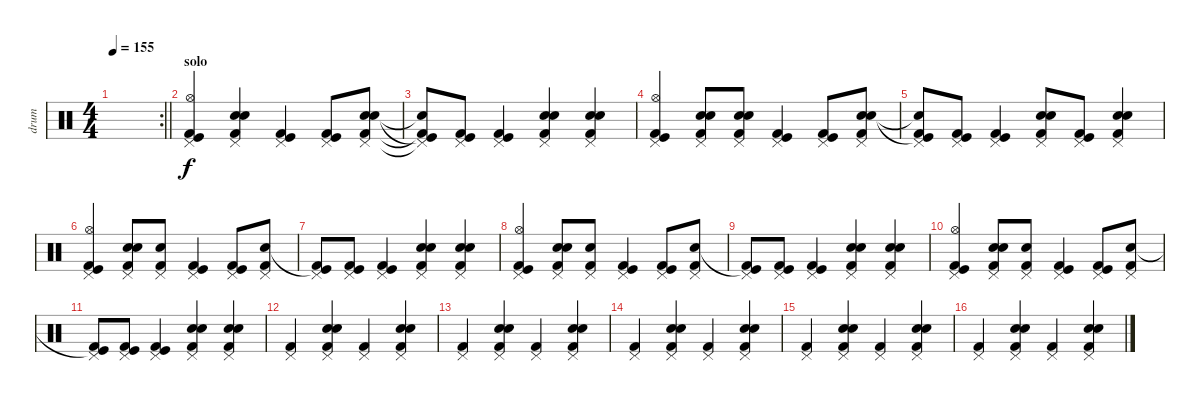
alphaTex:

\track ("drum" "drum") {instrument percussion}
\staff {score}
\articulation defaults
\rc 2
\ts (4 4)
\tempo 155
\clef neutral
\barLineRight lightlight
\ks c
|
\section ("" "solo")
("Pedal Hi-Hat (hit)" "Hi-Hat (open)" "Kick (hit)" "Kick (hit) 2").4 ("Pedal Hi-Hat (hit)" "Electric Snare (hit)" "Snare (hit) 2" "Kick (hit) 2").4 ("Pedal Hi-Hat (hit)" "Kick (hit)" "Kick (hit) 2").4 ("Pedal Hi-Hat (hit)" "Kick (hit)" "Kick (hit) 2").8 ("Pedal Hi-Hat (hit)" "Electric Snare (hit)" "Snare (hit) 2" "Kick (hit) 2").8 |
("Pedal Hi-Hat (hit)"{t} "Snare (hit)"{t} "Kick (hit)"{t} "Kick (hit) 2"{t}).8 ("Pedal Hi-Hat (hit)" "Kick (hit)" "Kick (hit) 2").8 ("Pedal Hi-Hat (hit)" "Kick (hit)" "Kick (hit) 2").4 ("Pedal Hi-Hat (hit)" "Electric Snare (hit)" "Snare (hit) 2" "Kick (hit) 2").4 ("Pedal Hi-Hat (hit)" "Electric Snare (hit)" "Snare (hit) 2" "Kick (hit) 2").4 |
("Pedal Hi-Hat (hit)" "Hi-Hat (open)" "Kick (hit)" "Kick (hit) 2").4 ("Pedal Hi-Hat (hit)" "Electric Snare (hit)" "Snare (hit) 2" "Kick (hit) 2").8 ("Pedal Hi-Hat (hit)" "Electric Snare (hit)" "Snare (hit) 2" "Kick (hit) 2").8 ("Pedal Hi-Hat (hit)" "Kick (hit)" "Kick (hit) 2").4 ("Pedal Hi-Hat (hit)" "Kick (hit)" "Kick (hit) 2").8 ("Pedal Hi-Hat (hit)" "Electric Snare (hit)" "Snare (hit) 2" "Kick (hit) 2").8 |
("Pedal Hi-Hat (hit)" "Snare (hit)"{t} "Kick (hit)"{t} "Kick (hit) 2").8 ("Pedal Hi-Hat (hit)" "Kick (hit)" "Kick (hit) 2").8 ("Pedal Hi-Hat (hit)" "Kick (hit)" "Kick (hit) 2").4 ("Pedal Hi-Hat (hit)" "Snare (hit) 2" "Electric Snare (hit)" "Kick (hit) 2").8 ("Pedal Hi-Hat (hit)" "Kick (hit)" "Kick (hit) 2").8 ("Pedal Hi-Hat (hit)" "Snare (hit) 2" "Electric Snare (hit)" "Kick (hit) 2").4 |
("Pedal Hi-Hat (hit)" "Hi-Hat (open)" "Kick (hit)" "Kick (hit) 2").4 ("Pedal Hi-Hat (hit)" "Electric Snare (hit)" "Snare (hit) 2" "Kick (hit) 2").8 ("Pedal Hi-Hat (hit)" "Snare (hit) 2" "Kick (hit) 2").8 ("Pedal Hi-Hat (hit)" "Kick (hit)" "Kick (hit) 2").4 ("Pedal Hi-Hat (hit)" "Kick (hit)" "Kick (hit) 2").8 ("Pedal Hi-Hat (hit)" "Snare (hit) 2" "Kick (hit) 2").8 |
("Pedal Hi-Hat (hit)" "Kick (hit)"{t} "Kick (hit) 2").8 ("Pedal Hi-Hat (hit)" "Kick (hit)" "Kick (hit) 2").8 ("Pedal Hi-Hat (hit)" "Kick (hit)" "Kick (hit) 2").4 ("Pedal Hi-Hat (hit)" "Electric Snare (hit)" "Snare (hit) 2" "Kick (hit) 2").4 ("Pedal Hi-Hat (hit)" "Electric Snare (hit)" "Snare (hit) 2" "Kick (hit) 2").4 |
("Pedal Hi-Hat (hit)" "Hi-Hat (open)" "Kick (hit)" "Kick (hit) 2").4 ("Pedal Hi-Hat (hit)" "Electric Snare (hit)" "Snare (hit) 2" "Kick (hit) 2").8 ("Pedal Hi-Hat (hit)" "Snare (hit) 2" "Kick (hit) 2").8 ("Pedal Hi-Hat (hit)" "Kick (hit)" "Kick (hit) 2").4 ("Pedal Hi-Hat (hit)" "Kick (hit)" "Kick (hit) 2").8 ("Pedal Hi-Hat (hit)" "Snare (hit) 2" "Kick (hit) 2").8 |
("Pedal Hi-Hat (hit)" "Kick (hit)"{t} "Kick (hit) 2").8 ("Pedal Hi-Hat (hit)" "Kick (hit)" "Kick (hit) 2").8 ("Pedal Hi-Hat (hit)" "Kick (hit)" "Kick (hit) 2").4 ("Pedal Hi-Hat (hit)" "Electric Snare (hit)" "Snare (hit) 2" "Kick (hit) 2").4 ("Pedal Hi-Hat (hit)" "Electric Snare (hit)" "Snare (hit) 2" "Kick (hit) 2").4 |
("Pedal Hi-Hat (hit)" "Hi-Hat (open)" "Kick (hit)" "Kick (hit) 2").4 ("Pedal Hi-Hat (hit)" "Electric Snare (hit)" "Snare (hit) 2" "Kick (hit) 2").8 ("Pedal Hi-Hat (hit)" "Snare (hit) 2" "Kick (hit) 2").8 ("Pedal Hi-Hat (hit)" "Kick (hit)" "Kick (hit) 2").4 ("Pedal Hi-Hat (hit)" "Kick (hit)" "Kick (hit) 2").8 ("Pedal Hi-Hat (hit)" "Snare (hit) 2" "Kick (hit) 2").8 |
("Pedal Hi-Hat (hit)" "Kick (hit)"{t} "Kick (hit) 2").8 ("Pedal Hi-Hat (hit)" "Kick (hit)" "Kick (hit) 2").8 ("Pedal Hi-Hat (hit)" "Kick (hit)" "Kick (hit) 2").4 ("Pedal Hi-Hat (hit)" "Electric Snare (hit)" "Snare (hit) 2" "Kick (hit) 2").4 ("Pedal Hi-Hat (hit)" "Electric Snare (hit)" "Snare (hit) 2" "Kick (hit) 2").4 |
("Pedal Hi-Hat (hit)" "Kick (hit) 2").4 ("Pedal Hi-Hat (hit)" "Electric Snare (hit)" "Snare (hit) 2" "Kick (hit) 2").4 ("Pedal Hi-Hat (hit)" "Kick (hit) 2").4 ("Pedal Hi-Hat (hit)" "Electric Snare (hit)" "Snare (hit) 2" "Kick (hit) 2").4 |
("Pedal Hi-Hat (hit)" "Kick (hit) 2").4 ("Pedal Hi-Hat (hit)" "Electric Snare (hit)" "Snare (hit) 2" "Kick (hit) 2").4 ("Pedal Hi-Hat (hit)" "Kick (hit) 2").4 ("Pedal Hi-Hat (hit)" "Electric Snare (hit)" "Snare (hit) 2" "Kick (hit) 2").4 |
("Pedal Hi-Hat (hit)" "Kick (hit) 2").4 ("Pedal Hi-Hat (hit)" "Electric Snare (hit)" "Snare (hit) 2" "Kick (hit) 2").4 ("Pedal Hi-Hat (hit)" "Kick (hit) 2").4 ("Pedal Hi-Hat (hit)" "Electric Snare (hit)" "Snare (hit) 2" "Kick (hit) 2").4 |
("Pedal Hi-Hat (hit)" "Kick (hit) 2").4 ("Pedal Hi-Hat (hit)" "Electric Snare (hit)" "Snare (hit) 2" "Kick (hit) 2").4 ("Pedal Hi-Hat (hit)" "Kick (hit) 2").4 ("Pedal Hi-Hat (hit)" "Electric Snare (hit)" "Snare (hit) 2" "Kick (hit) 2").4 |
("Pedal Hi-Hat (hit)" "Kick (hit) 2").4 ("Pedal Hi-Hat (hit)" "Electric Snare (hit)" "Snare (hit) 2" "Kick (hit) 2").4 ("Pedal Hi-Hat (hit)" "Kick (hit) 2").4 ("Pedal Hi-Hat (hit)" "Electric Snare (hit)" "Snare (hit) 2" "Kick (hit) 2").4
